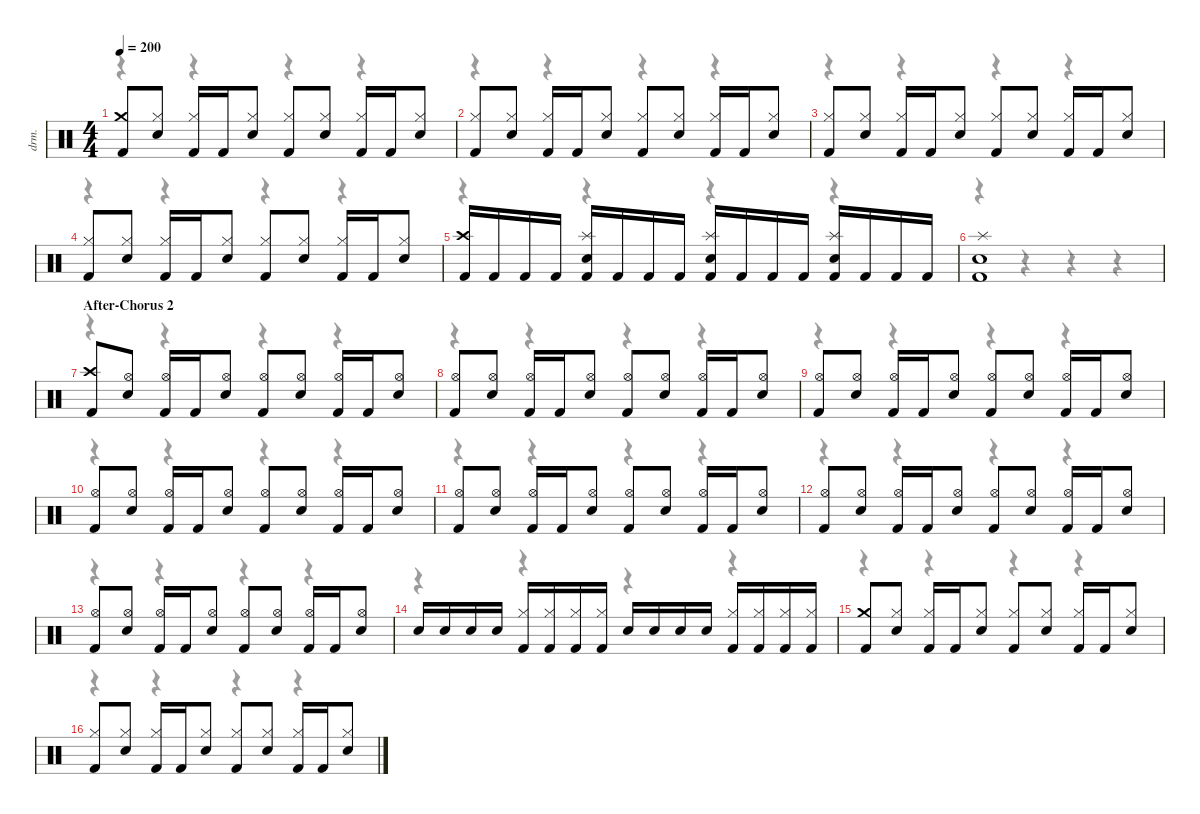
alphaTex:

\defaultSystemsLayout 4
\hideDynamics
\bracketExtendMode nobrackets
\otherSystemsTrackNameOrientation horizontal
\track ("David Mackintosh (Drums)" "drm.") {instrument percussion}
\staff {score}
\articulation defaults
\voice
\ts (4 4)
\tempo 200
\clef neutral
\ks c
("Kick (hit) 2" "Crash medium (hit)").8{dy f} ("Snare (hit) 2" "Hi-Hat (closed)").8 ("Kick (hit) 2" "Hi-Hat (closed)").16 "Kick (hit) 2".16 ("Snare (hit) 2" "Hi-Hat (closed)").8 ("Kick (hit) 2" "Hi-Hat (closed)").8 ("Snare (hit) 2" "Hi-Hat (closed)").8 ("Kick (hit) 2" "Hi-Hat (closed)").16 "Kick (hit) 2".16 ("Snare (hit) 2" "Hi-Hat (closed)").8 |
("Kick (hit) 2" "Hi-Hat (closed)").8 ("Snare (hit) 2" "Hi-Hat (closed)").8 ("Kick (hit) 2" "Hi-Hat (closed)").16 "Kick (hit) 2".16 ("Snare (hit) 2" "Hi-Hat (closed)").8 ("Kick (hit) 2" "Hi-Hat (closed)").8 ("Snare (hit) 2" "Hi-Hat (closed)").8 ("Kick (hit) 2" "Hi-Hat (closed)").16 "Kick (hit) 2".16 ("Snare (hit) 2" "Hi-Hat (closed)").8 |
("Kick (hit) 2" "Hi-Hat (closed)").8 ("Snare (hit) 2" "Hi-Hat (closed)").8 ("Kick (hit) 2" "Hi-Hat (closed)").16 "Kick (hit) 2".16 ("Snare (hit) 2" "Hi-Hat (closed)").8 ("Kick (hit) 2" "Hi-Hat (closed)").8 ("Snare (hit) 2" "Hi-Hat (closed)").8 ("Kick (hit) 2" "Hi-Hat (closed)").16 "Kick (hit) 2".16 ("Snare (hit) 2" "Hi-Hat (closed)").8 |
("Kick (hit) 2" "Hi-Hat (closed)").8 ("Snare (hit) 2" "Hi-Hat (closed)").8 ("Kick (hit) 2" "Hi-Hat (closed)").16 "Kick (hit) 2".16 ("Snare (hit) 2" "Hi-Hat (closed)").8 ("Kick (hit) 2" "Hi-Hat (closed)").8 ("Snare (hit) 2" "Hi-Hat (closed)").8 ("Kick (hit) 2" "Hi-Hat (closed)").16 "Kick (hit) 2".16 ("Snare (hit) 2" "Hi-Hat (closed)").8 |
("Kick (hit) 2" "Crash high (hit)").16 "Kick (hit) 2".16 "Kick (hit) 2".16 "Kick (hit) 2".16 ("Kick (hit) 2" "Snare (hit) 2" "Splash (hit)").16 "Kick (hit) 2".16 "Kick (hit) 2".16 "Kick (hit) 2".16 ("Kick (hit) 2" "Snare (hit) 2" "Splash (hit)").16 "Kick (hit) 2".16 "Kick (hit) 2".16 "Kick (hit) 2".16 ("Kick (hit) 2" "Snare (hit) 2" "Splash (hit)").16 "Kick (hit) 2".16 "Kick (hit) 2".16 "Kick (hit) 2".16 |
("Kick (hit) 2" "Snare (hit) 2" "Splash (hit)").1 |
\section ("" "After-Chorus 2")
("Kick (hit) 2" "Crash high (hit)").8 ("Snare (hit) 2" "Hi-Hat (open)").8 ("Kick (hit) 2" "Hi-Hat (open)").16 "Kick (hit) 2".16 ("Snare (hit) 2" "Hi-Hat (open)").8 ("Kick (hit) 2" "Hi-Hat (open)").8 ("Snare (hit) 2" "Hi-Hat (open)").8 ("Kick (hit) 2" "Hi-Hat (open)").16 "Kick (hit) 2".16 ("Snare (hit) 2" "Hi-Hat (open)").8 |
("Kick (hit) 2" "Hi-Hat (open)").8 ("Snare (hit) 2" "Hi-Hat (open)").8 ("Kick (hit) 2" "Hi-Hat (open)").16 "Kick (hit) 2".16 ("Snare (hit) 2" "Hi-Hat (open)").8 ("Kick (hit) 2" "Hi-Hat (open)").8 ("Snare (hit) 2" "Hi-Hat (open)").8 ("Kick (hit) 2" "Hi-Hat (open)").16 "Kick (hit) 2".16 ("Snare (hit) 2" "Hi-Hat (open)").8 |
("Kick (hit) 2" "Hi-Hat (open)").8 ("Snare (hit) 2" "Hi-Hat (open)").8 ("Kick (hit) 2" "Hi-Hat (open)").16 "Kick (hit) 2".16 ("Snare (hit) 2" "Hi-Hat (open)").8 ("Kick (hit) 2" "Hi-Hat (open)").8 ("Snare (hit) 2" "Hi-Hat (open)").8 ("Kick (hit) 2" "Hi-Hat (open)").16 "Kick (hit) 2".16 ("Snare (hit) 2" "Hi-Hat (open)").8 |
("Kick (hit) 2" "Hi-Hat (open)").8 ("Snare (hit) 2" "Hi-Hat (open)").8 ("Kick (hit) 2" "Hi-Hat (open)").16 "Kick (hit) 2".16 ("Snare (hit) 2" "Hi-Hat (open)").8 ("Kick (hit) 2" "Hi-Hat (open)").8 ("Snare (hit) 2" "Hi-Hat (open)").8 ("Kick (hit) 2" "Hi-Hat (open)").16 "Kick (hit) 2".16 ("Snare (hit) 2" "Hi-Hat (open)").8 |
("Kick (hit) 2" "Hi-Hat (open)").8 ("Snare (hit) 2" "Hi-Hat (open)").8 ("Kick (hit) 2" "Hi-Hat (open)").16 "Kick (hit) 2".16 ("Snare (hit) 2" "Hi-Hat (open)").8 ("Kick (hit) 2" "Hi-Hat (open)").8 ("Snare (hit) 2" "Hi-Hat (open)").8 ("Kick (hit) 2" "Hi-Hat (open)").16 "Kick (hit) 2".16 ("Snare (hit) 2" "Hi-Hat (open)").8 |
("Kick (hit) 2" "Hi-Hat (open)").8 ("Snare (hit) 2" "Hi-Hat (open)").8 ("Kick (hit) 2" "Hi-Hat (open)").16 "Kick (hit) 2".16 ("Snare (hit) 2" "Hi-Hat (open)").8 ("Kick (hit) 2" "Hi-Hat (open)").8 ("Snare (hit) 2" "Hi-Hat (open)").8 ("Kick (hit) 2" "Hi-Hat (open)").16 "Kick (hit) 2".16 ("Snare (hit) 2" "Hi-Hat (open)").8 |
("Kick (hit) 2" "Hi-Hat (open)").8 ("Snare (hit) 2" "Hi-Hat (open)").8 ("Kick (hit) 2" "Hi-Hat (open)").16 "Kick (hit) 2".16 ("Snare (hit) 2" "Hi-Hat (open)").8 ("Kick (hit) 2" "Hi-Hat (open)").8 ("Snare (hit) 2" "Hi-Hat (open)").8 ("Kick (hit) 2" "Hi-Hat (open)").16 "Kick (hit) 2".16 ("Snare (hit) 2" "Hi-Hat (open)").8 |
"Snare (hit) 2".16 "Snare (hit) 2".16 "Snare (hit) 2".16 "Snare (hit) 2".16 ("Kick (hit) 2" "Hi-Hat (closed)").16 ("Kick (hit) 2" "Hi-Hat (closed)").16 ("Kick (hit) 2" "Hi-Hat (closed)").16 ("Kick (hit) 2" "Hi-Hat (closed)").16 "Snare (hit) 2".16 "Snare (hit) 2".16 "Snare (hit) 2".16 "Snare (hit) 2".16 ("Kick (hit) 2" "Hi-Hat (closed)").16 ("Kick (hit) 2" "Hi-Hat (closed)").16 ("Kick (hit) 2" "Hi-Hat (closed)").16 ("Kick (hit) 2" "Hi-Hat (closed)").16 |
("Kick (hit) 2" "Crash medium (hit)").8 ("Snare (hit) 2" "Hi-Hat (closed)").8 ("Kick (hit) 2" "Hi-Hat (closed)").16 "Kick (hit) 2".16 ("Snare (hit) 2" "Hi-Hat (closed)").8 ("Kick (hit) 2" "Hi-Hat (closed)").8 ("Snare (hit) 2" "Hi-Hat (closed)").8 ("Kick (hit) 2" "Hi-Hat (closed)").16 "Kick (hit) 2".16 ("Snare (hit) 2" "Hi-Hat (closed)").8 |
("Kick (hit) 2" "Hi-Hat (closed)").8 ("Snare (hit) 2" "Hi-Hat (closed)").8 ("Kick (hit) 2" "Hi-Hat (closed)").16 "Kick (hit) 2".16 ("Snare (hit) 2" "Hi-Hat (closed)").8 ("Kick (hit) 2" "Hi-Hat (closed)").8 ("Snare (hit) 2" "Hi-Hat (closed)").8 ("Kick (hit) 2" "Hi-Hat (closed)").16 "Kick (hit) 2".16 ("Snare (hit) 2" "Hi-Hat (closed)").8
\voice
\clef neutral
\ottava regular
\simile none
\ks c
r.4{dy mf} r.4 r.4 r.4 |
r.4 r.4 r.4 r.4 |
r.4 r.4 r.4 r.4 |
r.4 r.4 r.4 r.4 |
r.4 r.4 r.4 r.4 |
r.4 r.4 r.4 r.4 |
r.4 r.4 r.4 r.4 |
r.4 r.4 r.4 r.4 |
r.4 r.4 r.4 r.4 |
r.4 r.4 r.4 r.4 |
r.4 r.4 r.4 r.4 |
r.4 r.4 r.4 r.4 |
r.4 r.4 r.4 r.4 |
r.4 r.4 r.4 r.4 |
r.4 r.4 r.4 r.4 |
r.4 r.4 r.4 r.4
